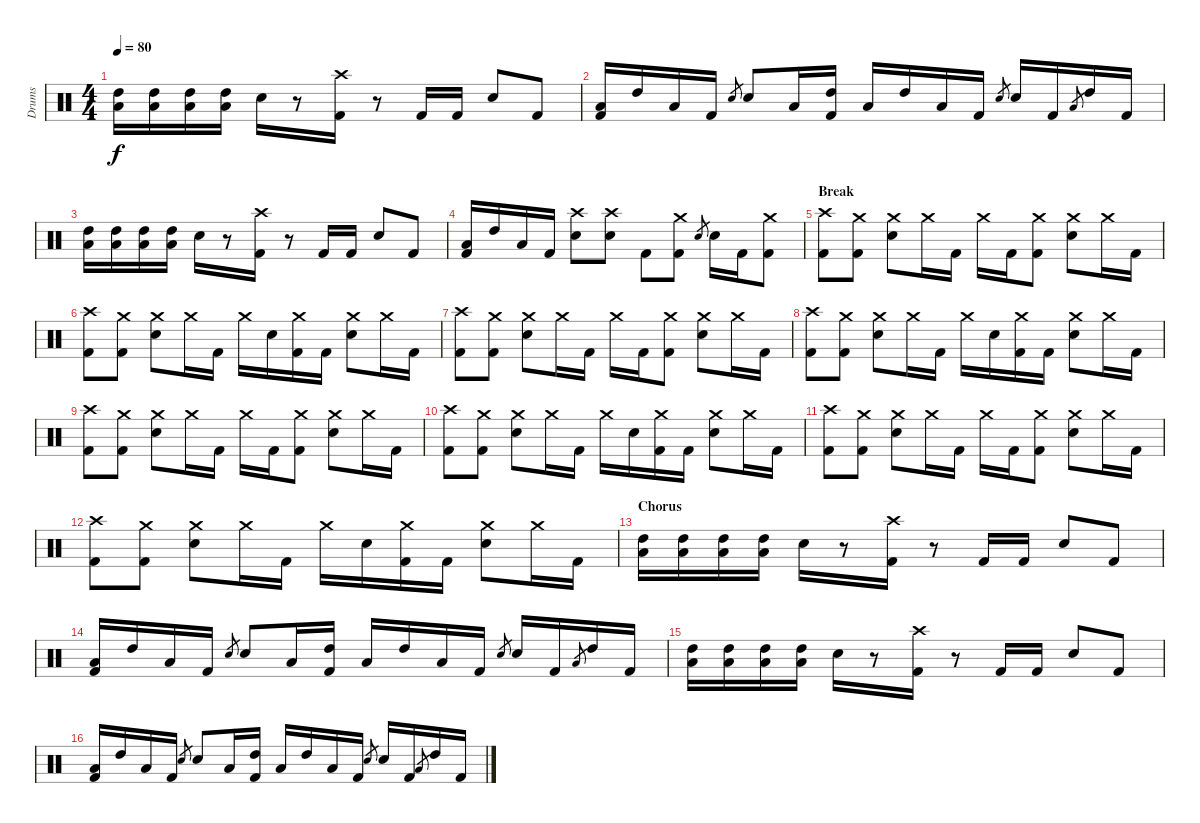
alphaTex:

\track ("Drums" "Drums") {instrument percussion}
\staff {score}
\articulation defaults
\ts (4 4)
\tempo 80
\clef neutral
\ks c
("High Tom (hit)" "Low Floor Tom (hit)").16{dy f} ("High Tom (hit)" "Low Floor Tom (hit)").16 ("High Tom (hit)" "Low Floor Tom (hit)").16 ("High Tom (hit)" "Low Floor Tom (hit)").16 "Snare (hit) 2".16 r.8 ("Crash high (hit)" "Kick (hit) 2").16 r.8 "Kick (hit) 2".16 "Kick (hit) 2".16 "Snare (hit) 2".8 "Kick (hit) 2".8 |
("Low Floor Tom (hit)" "Kick (hit) 2").16 "High Tom (hit)".16 "Low Floor Tom (hit)".16 "Kick (hit) 2".16 "Snare (hit) 2".8{gr} "Snare (hit) 2".8 "Low Floor Tom (hit)".16 ("High Tom (hit)" "Kick (hit) 2").16 "Low Floor Tom (hit)".16 "High Tom (hit)".16 "Low Floor Tom (hit)".16 "Kick (hit) 2".16 "Snare (hit) 2".8{gr} "Snare (hit) 2".16 "Kick (hit) 2".16 "Low Floor Tom (hit)".8{gr} "High Tom (hit)".16 "Kick (hit) 2".16 |
("High Tom (hit)" "Low Floor Tom (hit)").16 ("High Tom (hit)" "Low Floor Tom (hit)").16 ("High Tom (hit)" "Low Floor Tom (hit)").16 ("High Tom (hit)" "Low Floor Tom (hit)").16 "Snare (hit) 2".16 r.8 ("Crash high (hit)" "Kick (hit) 2").16 r.8 "Kick (hit) 2".16 "Kick (hit) 2".16 "Snare (hit) 2".8 "Kick (hit) 2".8 |
("Low Floor Tom (hit)" "Kick (hit) 2").16 "High Tom (hit)".16 "Low Floor Tom (hit)".16 "Kick (hit) 2".16 ("Crash high (hit)" "Snare (hit) 2").8 ("Crash high (hit)" "Snare (hit) 2").8 "Kick (hit) 2".8 ("Crash medium (hit)" "Kick (hit) 2").8 "Snare (hit) 2".8{gr} "Snare (hit) 2".16 "Kick (hit) 2".16 ("Crash medium (hit)" "Kick (hit) 2").8 |
\section ("" "Break")
("Crash high (hit)" "Kick (hit) 2").8 ("Crash medium (hit)" "Kick (hit) 2").8 ("Crash medium (hit)" "Snare (hit) 2").8 "Crash medium (hit)".16 "Kick (hit) 2".16 "Crash medium (hit)".16 "Kick (hit) 2".16 ("Crash medium (hit)" "Kick (hit) 2").8 ("Crash medium (hit)" "Snare (hit) 2").8 "Crash medium (hit)".16 "Kick (hit) 2".16 |
("Crash high (hit)" "Kick (hit) 2").8 ("Crash medium (hit)" "Kick (hit) 2").8 ("Crash medium (hit)" "Snare (hit) 2").8 "Crash medium (hit)".16 "Kick (hit) 2".16 "Crash medium (hit)".16 "Snare (hit) 2".16 ("Crash medium (hit)" "Kick (hit) 2").16 "Kick (hit) 2".16 ("Crash medium (hit)" "Snare (hit) 2").8 "Crash medium (hit)".16 "Kick (hit) 2".16 |
("Crash high (hit)" "Kick (hit) 2").8 ("Crash medium (hit)" "Kick (hit) 2").8 ("Crash medium (hit)" "Snare (hit) 2").8 "Crash medium (hit)".16 "Kick (hit) 2".16 "Crash medium (hit)".16 "Kick (hit) 2".16 ("Crash medium (hit)" "Kick (hit) 2").8 ("Crash medium (hit)" "Snare (hit) 2").8 "Crash medium (hit)".16 "Kick (hit) 2".16 |
("Crash high (hit)" "Kick (hit) 2").8 ("Crash medium (hit)" "Kick (hit) 2").8 ("Crash medium (hit)" "Snare (hit) 2").8 "Crash medium (hit)".16 "Kick (hit) 2".16 "Crash medium (hit)".16 "Snare (hit) 2".16 ("Crash medium (hit)" "Kick (hit) 2").16 "Kick (hit) 2".16 ("Crash medium (hit)" "Snare (hit) 2").8 "Crash medium (hit)".16 "Kick (hit) 2".16 |
("Crash high (hit)" "Kick (hit) 2").8 ("Crash medium (hit)" "Kick (hit) 2").8 ("Crash medium (hit)" "Snare (hit) 2").8 "Crash medium (hit)".16 "Kick (hit) 2".16 "Crash medium (hit)".16 "Kick (hit) 2".16 ("Crash medium (hit)" "Kick (hit) 2").8 ("Crash medium (hit)" "Snare (hit) 2").8 "Crash medium (hit)".16 "Kick (hit) 2".16 |
("Crash high (hit)" "Kick (hit) 2").8 ("Crash medium (hit)" "Kick (hit) 2").8 ("Crash medium (hit)" "Snare (hit) 2").8 "Crash medium (hit)".16 "Kick (hit) 2".16 "Crash medium (hit)".16 "Snare (hit) 2".16 ("Crash medium (hit)" "Kick (hit) 2").16 "Kick (hit) 2".16 ("Crash medium (hit)" "Snare (hit) 2").8 "Crash medium (hit)".16 "Kick (hit) 2".16 |
("Crash high (hit)" "Kick (hit) 2").8 ("Crash medium (hit)" "Kick (hit) 2").8 ("Crash medium (hit)" "Snare (hit) 2").8 "Crash medium (hit)".16 "Kick (hit) 2".16 "Crash medium (hit)".16 "Kick (hit) 2".16 ("Crash medium (hit)" "Kick (hit) 2").8 ("Crash medium (hit)" "Snare (hit) 2").8 "Crash medium (hit)".16 "Kick (hit) 2".16 |
("Crash high (hit)" "Kick (hit) 2").8 ("Crash medium (hit)" "Kick (hit) 2").8 ("Crash medium (hit)" "Snare (hit) 2").8 "Crash medium (hit)".16 "Kick (hit) 2".16 "Crash medium (hit)".16 "Snare (hit) 2".16 ("Crash medium (hit)" "Kick (hit) 2").16 "Kick (hit) 2".16 ("Crash medium (hit)" "Snare (hit) 2").8 "Crash medium (hit)".16 "Kick (hit) 2".16 |
\section ("" "Chorus")
("High Tom (hit)" "Low Floor Tom (hit)").16 ("High Tom (hit)" "Low Floor Tom (hit)").16 ("High Tom (hit)" "Low Floor Tom (hit)").16 ("High Tom (hit)" "Low Floor Tom (hit)").16 "Snare (hit) 2".16 r.8 ("Crash high (hit)" "Kick (hit) 2").16 r.8 "Kick (hit) 2".16 "Kick (hit) 2".16 "Snare (hit) 2".8 "Kick (hit) 2".8 |
("Low Floor Tom (hit)" "Kick (hit) 2").16 "High Tom (hit)".16 "Low Floor Tom (hit)".16 "Kick (hit) 2".16 "Snare (hit) 2".8{gr} "Snare (hit) 2".8 "Low Floor Tom (hit)".16 ("High Tom (hit)" "Kick (hit) 2").16 "Low Floor Tom (hit)".16 "High Tom (hit)".16 "Low Floor Tom (hit)".16 "Kick (hit) 2".16 "Snare (hit) 2".8{gr} "Snare (hit) 2".16 "Kick (hit) 2".16 "Low Floor Tom (hit)".8{gr} "High Tom (hit)".16 "Kick (hit) 2".16 |
("High Tom (hit)" "Low Floor Tom (hit)").16 ("High Tom (hit)" "Low Floor Tom (hit)").16 ("High Tom (hit)" "Low Floor Tom (hit)").16 ("High Tom (hit)" "Low Floor Tom (hit)").16 "Snare (hit) 2".16 r.8 ("Crash high (hit)" "Kick (hit) 2").16 r.8 "Kick (hit) 2".16 "Kick (hit) 2".16 "Snare (hit) 2".8 "Kick (hit) 2".8 |
("Low Floor Tom (hit)" "Kick (hit) 2").16 "High Tom (hit)".16 "Low Floor Tom (hit)".16 "Kick (hit) 2".16 "Snare (hit) 2".8{gr} "Snare (hit) 2".8 "Low Floor Tom (hit)".16 ("High Tom (hit)" "Kick (hit) 2").16 "Low Floor Tom (hit)".16 "High Tom (hit)".16 "Low Floor Tom (hit)".16 "Kick (hit) 2".16 "Snare (hit) 2".8{gr} "Snare (hit) 2".16 "Kick (hit) 2".16 "Low Floor Tom (hit)".8{gr} "High Tom (hit)".16 "Kick (hit) 2".16
